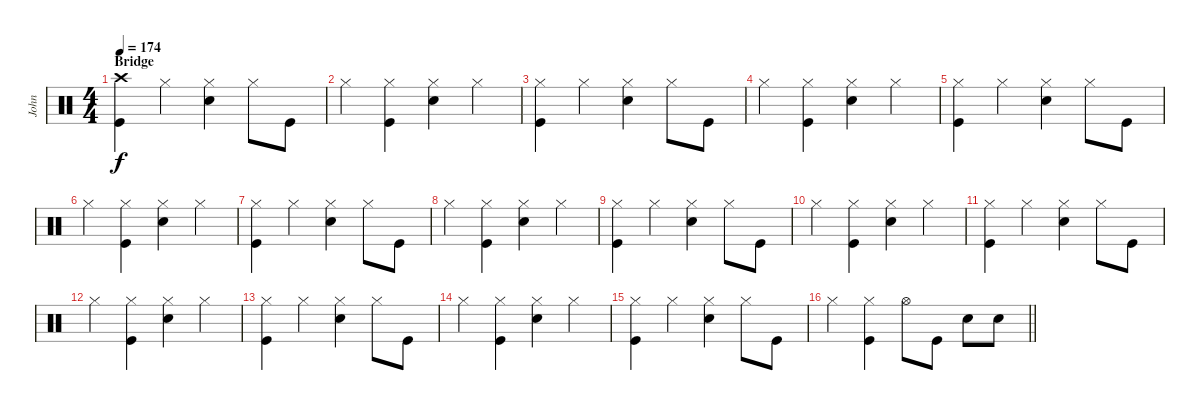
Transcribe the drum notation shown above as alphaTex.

\track ("John" "John") {instrument percussion}
\staff {score}
\articulation defaults
\ts (4 4)
\section ("" "Bridge")
\tempo 174
\clef neutral
\ks c
("Crash high (hit)" "Kick (hit)").4{dy f} "Hi-Hat (closed)".4 ("Hi-Hat (closed)" "Snare (hit) 2").4 "Hi-Hat (closed)".8 "Kick (hit)".8 |
"Hi-Hat (closed)".4 ("Hi-Hat (closed)" "Kick (hit)").4 ("Hi-Hat (closed)" "Snare (hit) 2").4 "Hi-Hat (closed)".4 |
("Hi-Hat (closed)" "Kick (hit)").4 "Hi-Hat (closed)".4 ("Hi-Hat (closed)" "Snare (hit) 2").4 "Hi-Hat (closed)".8 "Kick (hit)".8 |
"Hi-Hat (closed)".4 ("Hi-Hat (closed)" "Kick (hit)").4 ("Hi-Hat (closed)" "Snare (hit) 2").4 "Hi-Hat (closed)".4 |
("Hi-Hat (closed)" "Kick (hit)").4 "Hi-Hat (closed)".4 ("Hi-Hat (closed)" "Snare (hit) 2").4 "Hi-Hat (closed)".8 "Kick (hit)".8 |
"Hi-Hat (closed)".4 ("Hi-Hat (closed)" "Kick (hit)").4 ("Hi-Hat (closed)" "Snare (hit) 2").4 "Hi-Hat (closed)".4 |
("Hi-Hat (closed)" "Kick (hit)").4 "Hi-Hat (closed)".4 ("Hi-Hat (closed)" "Snare (hit) 2").4 "Hi-Hat (closed)".8 "Kick (hit)".8 |
"Hi-Hat (closed)".4 ("Hi-Hat (closed)" "Kick (hit)").4 ("Hi-Hat (closed)" "Snare (hit) 2").4 "Hi-Hat (closed)".4 |
("Hi-Hat (closed)" "Kick (hit)").4 "Hi-Hat (closed)".4 ("Hi-Hat (closed)" "Snare (hit) 2").4 "Hi-Hat (closed)".8 "Kick (hit)".8 |
"Hi-Hat (closed)".4 ("Hi-Hat (closed)" "Kick (hit)").4 ("Hi-Hat (closed)" "Snare (hit) 2").4 "Hi-Hat (closed)".4 |
("Hi-Hat (closed)" "Kick (hit)").4 "Hi-Hat (closed)".4 ("Hi-Hat (closed)" "Snare (hit) 2").4 "Hi-Hat (closed)".8 "Kick (hit)".8 |
"Hi-Hat (closed)".4 ("Hi-Hat (closed)" "Kick (hit)").4 ("Hi-Hat (closed)" "Snare (hit) 2").4 "Hi-Hat (closed)".4 |
("Hi-Hat (closed)" "Kick (hit)").4 "Hi-Hat (closed)".4 ("Hi-Hat (closed)" "Snare (hit) 2").4 "Hi-Hat (closed)".8 "Kick (hit)".8 |
"Hi-Hat (closed)".4 ("Hi-Hat (closed)" "Kick (hit)").4 ("Hi-Hat (closed)" "Snare (hit) 2").4 "Hi-Hat (closed)".4 |
("Hi-Hat (closed)" "Kick (hit)").4 "Hi-Hat (closed)".4 ("Hi-Hat (closed)" "Snare (hit) 2").4 "Hi-Hat (closed)".8 "Kick (hit)".8 |
\barLineRight lightlight "Hi-Hat (closed)".4
("Hi-Hat (closed)" "Kick (hit)").4 "Hi-Hat (open)".8 "Kick (hit)".8 "Snare (hit) 2".8 "Snare (hit) 2".8
